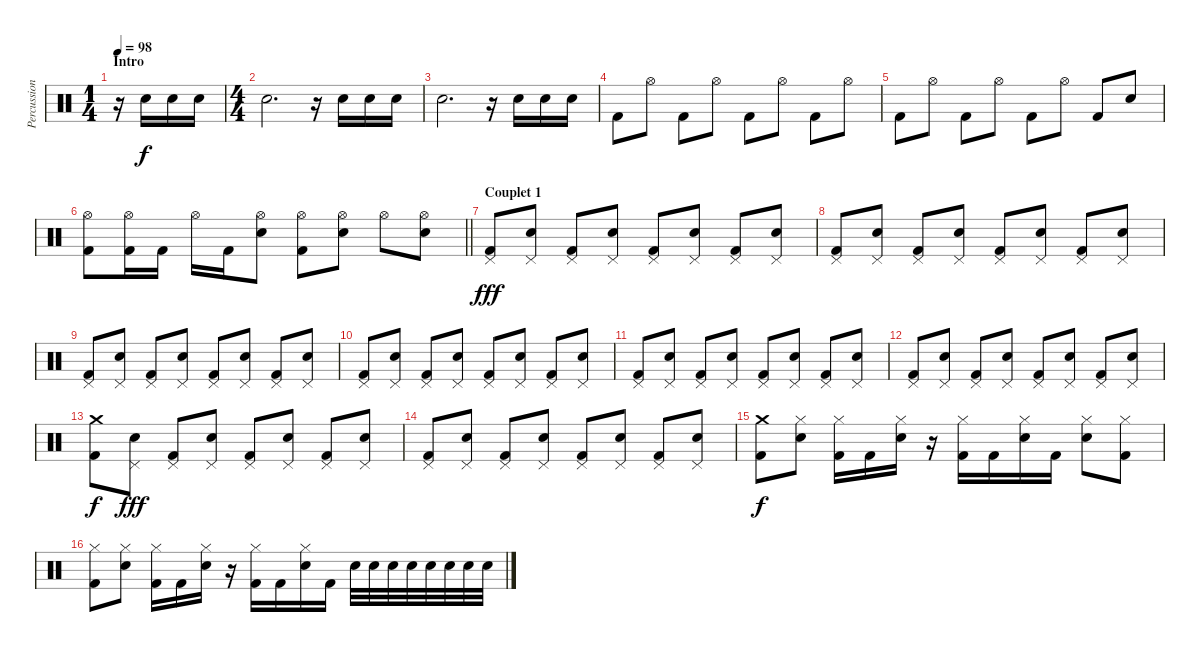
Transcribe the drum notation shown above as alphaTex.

\track ("Percussions" "Percussion") {instrument percussion}
\staff
\articulation defaults
\ts (1 4)
\section ("" "Intro")
\tempo 98
\clef neutral
\ks c
r.16{dy f} "Electric Snare (hit)".16 "Electric Snare (hit)".16 "Electric Snare (hit)".16 |
\ts (4 4)
"Electric Snare (hit)".2{d} r.16 "Electric Snare (hit)".16 "Electric Snare (hit)".16 "Electric Snare (hit)".16 |
"Electric Snare (hit)".2{d} r.16 "Electric Snare (hit)".16 "Electric Snare (hit)".16 "Electric Snare (hit)".16 |
"Kick (hit) 2".8 "Hi-Hat (open)".8 "Kick (hit) 2".8 "Hi-Hat (open)".8 "Kick (hit) 2".8 "Hi-Hat (open)".8 "Kick (hit) 2".8 "Hi-Hat (open)".8 |
"Kick (hit) 2".8 "Hi-Hat (open)".8 "Kick (hit) 2".8 "Hi-Hat (open)".8 "Kick (hit) 2".8 "Hi-Hat (open)".8 "Kick (hit) 2".8 "Electric Snare (hit)".8 |
\barLineRight lightlight
("Hi-Hat (open)" "Kick (hit) 2").8 ("Hi-Hat (open)" "Kick (hit) 2").16 "Kick (hit) 2".16 "Hi-Hat (open)".16 "Kick (hit) 2".16 ("Hi-Hat (open)" "Electric Snare (hit)").8 ("Hi-Hat (open)" "Kick (hit) 2").8 ("Hi-Hat (open)" "Electric Snare (hit)").8 "Hi-Hat (open)".8 ("Hi-Hat (open)" "Electric Snare (hit)").8 |
\section ("" "Couplet 1")
("Pedal Hi-Hat (hit)" "Kick (hit) 2").8{dy fff} ("Pedal Hi-Hat (hit)" "Electric Snare (hit)").8 ("Pedal Hi-Hat (hit)" "Kick (hit) 2").8 ("Pedal Hi-Hat (hit)" "Electric Snare (hit)").8 ("Pedal Hi-Hat (hit)" "Kick (hit) 2").8 ("Pedal Hi-Hat (hit)" "Electric Snare (hit)").8 ("Pedal Hi-Hat (hit)" "Kick (hit) 2").8 ("Pedal Hi-Hat (hit)" "Electric Snare (hit)").8 |
("Pedal Hi-Hat (hit)" "Kick (hit) 2").8 ("Pedal Hi-Hat (hit)" "Electric Snare (hit)").8 ("Pedal Hi-Hat (hit)" "Kick (hit) 2").8 ("Pedal Hi-Hat (hit)" "Electric Snare (hit)").8 ("Pedal Hi-Hat (hit)" "Kick (hit) 2").8 ("Pedal Hi-Hat (hit)" "Electric Snare (hit)").8 ("Pedal Hi-Hat (hit)" "Kick (hit) 2").8 ("Pedal Hi-Hat (hit)" "Electric Snare (hit)").8 |
("Pedal Hi-Hat (hit)" "Kick (hit) 2").8 ("Pedal Hi-Hat (hit)" "Electric Snare (hit)").8 ("Pedal Hi-Hat (hit)" "Kick (hit) 2").8 ("Pedal Hi-Hat (hit)" "Electric Snare (hit)").8 ("Pedal Hi-Hat (hit)" "Kick (hit) 2").8 ("Pedal Hi-Hat (hit)" "Electric Snare (hit)").8 ("Pedal Hi-Hat (hit)" "Kick (hit) 2").8 ("Pedal Hi-Hat (hit)" "Electric Snare (hit)").8 |
("Pedal Hi-Hat (hit)" "Kick (hit) 2").8 ("Pedal Hi-Hat (hit)" "Electric Snare (hit)").8 ("Pedal Hi-Hat (hit)" "Kick (hit) 2").8 ("Pedal Hi-Hat (hit)" "Electric Snare (hit)").8 ("Pedal Hi-Hat (hit)" "Kick (hit) 2").8 ("Pedal Hi-Hat (hit)" "Electric Snare (hit)").8 ("Pedal Hi-Hat (hit)" "Kick (hit) 2").8 ("Pedal Hi-Hat (hit)" "Electric Snare (hit)").8 |
("Pedal Hi-Hat (hit)" "Kick (hit) 2").8 ("Pedal Hi-Hat (hit)" "Electric Snare (hit)").8 ("Pedal Hi-Hat (hit)" "Kick (hit) 2").8 ("Pedal Hi-Hat (hit)" "Electric Snare (hit)").8 ("Pedal Hi-Hat (hit)" "Kick (hit) 2").8 ("Pedal Hi-Hat (hit)" "Electric Snare (hit)").8 ("Pedal Hi-Hat (hit)" "Kick (hit) 2").8 ("Pedal Hi-Hat (hit)" "Electric Snare (hit)").8 |
("Pedal Hi-Hat (hit)" "Kick (hit) 2").8 ("Pedal Hi-Hat (hit)" "Electric Snare (hit)").8 ("Pedal Hi-Hat (hit)" "Kick (hit) 2").8 ("Pedal Hi-Hat (hit)" "Electric Snare (hit)").8 ("Pedal Hi-Hat (hit)" "Kick (hit) 2").8 ("Pedal Hi-Hat (hit)" "Electric Snare (hit)").8 ("Pedal Hi-Hat (hit)" "Kick (hit) 2").8 ("Pedal Hi-Hat (hit)" "Electric Snare (hit)").8 |
("Crash medium (hit)" "Kick (hit) 2").8{dy f} ("Pedal Hi-Hat (hit)" "Electric Snare (hit)").8{dy fff} ("Pedal Hi-Hat (hit)" "Kick (hit) 2").8 ("Pedal Hi-Hat (hit)" "Electric Snare (hit)").8 ("Pedal Hi-Hat (hit)" "Kick (hit) 2").8 ("Pedal Hi-Hat (hit)" "Electric Snare (hit)").8 ("Pedal Hi-Hat (hit)" "Kick (hit) 2").8 ("Pedal Hi-Hat (hit)" "Electric Snare (hit)").8 |
("Pedal Hi-Hat (hit)" "Kick (hit) 2").8 ("Pedal Hi-Hat (hit)" "Electric Snare (hit)").8 ("Pedal Hi-Hat (hit)" "Kick (hit) 2").8 ("Pedal Hi-Hat (hit)" "Electric Snare (hit)").8 ("Pedal Hi-Hat (hit)" "Kick (hit) 2").8 ("Pedal Hi-Hat (hit)" "Electric Snare (hit)").8 ("Pedal Hi-Hat (hit)" "Kick (hit) 2").8 ("Pedal Hi-Hat (hit)" "Electric Snare (hit)").8 |
("Crash medium (hit)" "Kick (hit) 2").8{dy f} ("Hi-Hat (closed)" "Electric Snare (hit)").8 ("Hi-Hat (closed)" "Kick (hit) 2").16 "Kick (hit) 2".16 ("Hi-Hat (closed)" "Electric Snare (hit)").16 r.16 ("Hi-Hat (closed)" "Kick (hit) 2").16 "Kick (hit) 2".16 ("Hi-Hat (closed)" "Electric Snare (hit)").16 "Kick (hit) 2".16 ("Hi-Hat (closed)" "Electric Snare (hit)").8 ("Hi-Hat (closed)" "Kick (hit) 2").8 |
("Hi-Hat (closed)" "Kick (hit) 2").8 ("Hi-Hat (closed)" "Electric Snare (hit)").8 ("Hi-Hat (closed)" "Kick (hit) 2").16 "Kick (hit) 2".16 ("Hi-Hat (closed)" "Electric Snare (hit)").16 r.16 ("Hi-Hat (closed)" "Kick (hit) 2").16 "Kick (hit) 2".16 ("Hi-Hat (closed)" "Electric Snare (hit)").16 "Kick (hit) 2".16 "Electric Snare (hit)".32 "Electric Snare (hit)".32 "Electric Snare (hit)".32 "Electric Snare (hit)".32 "Electric Snare (hit)".32 "Electric Snare (hit)".32 "Electric Snare (hit)".32 "Electric Snare (hit)".32
